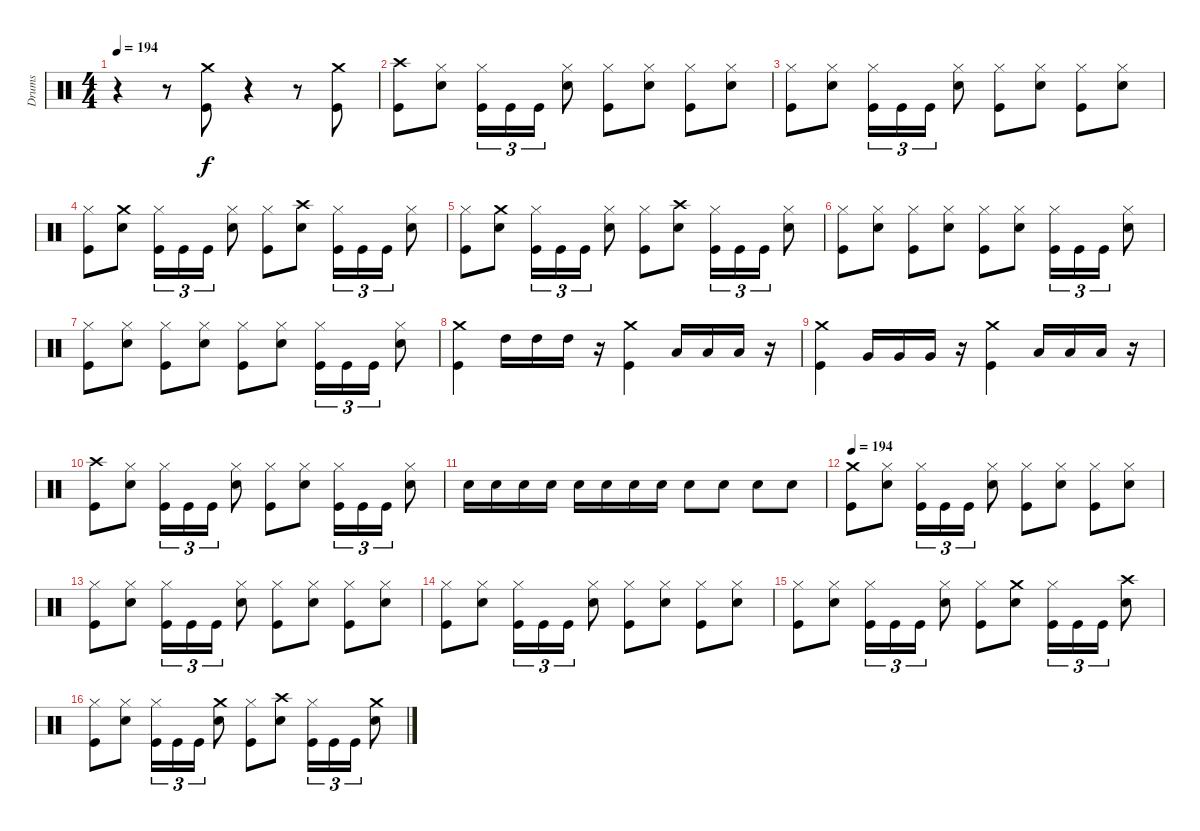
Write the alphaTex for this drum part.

\track ("Drums" "Drums") {instrument percussion}
\staff {score}
\articulation defaults
\ts (4 4)
\tempo 194
\clef neutral
\ks c
r.4{dy f} r.8 ("Crash medium (hit)" "Kick (hit)").8 r.4 r.8 ("Crash medium (hit)" "Kick (hit)").8 |
("Crash high (hit)" "Kick (hit)").8 ("Hi-Hat (closed)" "Snare (hit) 2").8 ("Hi-Hat (closed)" "Kick (hit)").16{tu (3 2)} "Kick (hit)".16{tu (3 2)} "Kick (hit)".16{tu (3 2)} ("Hi-Hat (closed)" "Snare (hit) 2").8 ("Hi-Hat (closed)" "Kick (hit)").8 ("Hi-Hat (closed)" "Snare (hit) 2").8 ("Hi-Hat (closed)" "Kick (hit)").8 ("Hi-Hat (closed)" "Snare (hit) 2").8 |
("Hi-Hat (closed)" "Kick (hit)").8 ("Hi-Hat (closed)" "Snare (hit) 2").8 ("Hi-Hat (closed)" "Kick (hit)").16{tu (3 2)} "Kick (hit)".16{tu (3 2)} "Kick (hit)".16{tu (3 2)} ("Hi-Hat (closed)" "Snare (hit) 2").8 ("Hi-Hat (closed)" "Kick (hit)").8 ("Hi-Hat (closed)" "Snare (hit) 2").8 ("Hi-Hat (closed)" "Kick (hit)").8 ("Hi-Hat (closed)" "Snare (hit) 2").8 |
("Hi-Hat (closed)" "Kick (hit)").8 ("Crash medium (hit)" "Snare (hit) 2").8 ("Hi-Hat (closed)" "Kick (hit)").16{tu (3 2)} "Kick (hit)".16{tu (3 2)} "Kick (hit)".16{tu (3 2)} ("Hi-Hat (closed)" "Snare (hit) 2").8 ("Hi-Hat (closed)" "Kick (hit)").8 ("Crash high (hit)" "Snare (hit) 2").8 ("Hi-Hat (closed)" "Kick (hit)").16{tu (3 2)} "Kick (hit)".16{tu (3 2)} "Kick (hit)".16{tu (3 2)} ("Hi-Hat (closed)" "Snare (hit) 2").8 |
("Hi-Hat (closed)" "Kick (hit)").8 ("Crash medium (hit)" "Snare (hit) 2").8 ("Hi-Hat (closed)" "Kick (hit)").16{tu (3 2)} "Kick (hit)".16{tu (3 2)} "Kick (hit)".16{tu (3 2)} ("Hi-Hat (closed)" "Snare (hit) 2").8 ("Hi-Hat (closed)" "Kick (hit)").8 ("Crash high (hit)" "Snare (hit) 2").8 ("Hi-Hat (closed)" "Kick (hit)").16{tu (3 2)} "Kick (hit)".16{tu (3 2)} "Kick (hit)".16{tu (3 2)} ("Hi-Hat (closed)" "Snare (hit) 2").8 |
("Hi-Hat (closed)" "Kick (hit)").8 ("Hi-Hat (closed)" "Snare (hit) 2").8 ("Hi-Hat (closed)" "Kick (hit)").8 ("Hi-Hat (closed)" "Snare (hit) 2").8 ("Hi-Hat (closed)" "Kick (hit)").8 ("Hi-Hat (closed)" "Snare (hit) 2").8 ("Hi-Hat (closed)" "Kick (hit)").16{tu (3 2)} "Kick (hit)".16{tu (3 2)} "Kick (hit)".16{tu (3 2)} ("Hi-Hat (closed)" "Snare (hit) 2").8 |
("Hi-Hat (closed)" "Kick (hit)").8 ("Hi-Hat (closed)" "Snare (hit) 2").8 ("Hi-Hat (closed)" "Kick (hit)").8 ("Hi-Hat (closed)" "Snare (hit) 2").8 ("Hi-Hat (closed)" "Kick (hit)").8 ("Hi-Hat (closed)" "Snare (hit) 2").8 ("Hi-Hat (closed)" "Kick (hit)").16{tu (3 2)} "Kick (hit)".16{tu (3 2)} "Kick (hit)".16{tu (3 2)} ("Hi-Hat (closed)" "Snare (hit) 2").8 |
("Crash medium (hit)" "Kick (hit)").4 "High Tom (hit)".16 "High Tom (hit)".16 "High Tom (hit)".16 r.16 ("Crash medium (hit)" "Kick (hit)").4 "Low Tom (hit)".16 "Low Tom (hit)".16 "Low Tom (hit)".16 r.16 |
("Crash medium (hit)" "Kick (hit)").4 "Very Low Tom (hit)".16 "Very Low Tom (hit)".16 "Very Low Tom (hit)".16 r.16 ("Crash medium (hit)" "Kick (hit)").4 "Low Floor Tom (hit)".16 "Low Floor Tom (hit)".16 "Low Floor Tom (hit)".16 r.16 |
("Crash high (hit)" "Kick (hit)").8 ("Hi-Hat (closed)" "Snare (hit) 2").8 ("Hi-Hat (closed)" "Kick (hit)").16{tu (3 2)} "Kick (hit)".16{tu (3 2)} "Kick (hit)".16{tu (3 2)} ("Hi-Hat (closed)" "Snare (hit) 2").8 ("Hi-Hat (closed)" "Kick (hit)").8 ("Hi-Hat (closed)" "Snare (hit) 2").8 ("Hi-Hat (closed)" "Kick (hit)").16{tu (3 2)} "Kick (hit)".16{tu (3 2)} "Kick (hit)".16{tu (3 2)} ("Hi-Hat (closed)" "Snare (hit) 2").8 |
"Snare (hit) 2".16 "Snare (hit) 2".16 "Snare (hit) 2".16 "Snare (hit) 2".16 "Snare (hit) 2".16 "Snare (hit) 2".16 "Snare (hit) 2".16 "Snare (hit) 2".16 "Snare (hit) 2".8 "Snare (hit) 2".8 "Snare (hit) 2".8 "Snare (hit) 2".8 |
\tempo 194
("Crash medium (hit)" "Kick (hit)").8 ("Hi-Hat (closed)" "Snare (hit) 2").8 ("Hi-Hat (closed)" "Kick (hit)").16{tu (3 2)} "Kick (hit)".16{tu (3 2)} "Kick (hit)".16{tu (3 2)} ("Hi-Hat (closed)" "Snare (hit) 2").8 ("Hi-Hat (closed)" "Kick (hit)").8 ("Hi-Hat (closed)" "Snare (hit) 2").8 ("Hi-Hat (closed)" "Kick (hit)").8 ("Hi-Hat (closed)" "Snare (hit) 2").8 |
("Hi-Hat (closed)" "Kick (hit)").8 ("Hi-Hat (closed)" "Snare (hit) 2").8 ("Hi-Hat (closed)" "Kick (hit)").16{tu (3 2)} "Kick (hit)".16{tu (3 2)} "Kick (hit)".16{tu (3 2)} ("Hi-Hat (closed)" "Snare (hit) 2").8 ("Hi-Hat (closed)" "Kick (hit)").8 ("Hi-Hat (closed)" "Snare (hit) 2").8 ("Hi-Hat (closed)" "Kick (hit)").8 ("Hi-Hat (closed)" "Snare (hit) 2").8 |
("Hi-Hat (closed)" "Kick (hit)").8 ("Hi-Hat (closed)" "Snare (hit) 2").8 ("Hi-Hat (closed)" "Kick (hit)").16{tu (3 2)} "Kick (hit)".16{tu (3 2)} "Kick (hit)".16{tu (3 2)} ("Hi-Hat (closed)" "Snare (hit) 2").8 ("Hi-Hat (closed)" "Kick (hit)").8 ("Hi-Hat (closed)" "Snare (hit) 2").8 ("Hi-Hat (closed)" "Kick (hit)").8 ("Hi-Hat (closed)" "Snare (hit) 2").8 |
("Hi-Hat (closed)" "Kick (hit)").8 ("Hi-Hat (closed)" "Snare (hit) 2").8 ("Hi-Hat (closed)" "Kick (hit)").16{tu (3 2)} "Kick (hit)".16{tu (3 2)} "Kick (hit)".16{tu (3 2)} ("Hi-Hat (closed)" "Snare (hit) 2").8 ("Hi-Hat (closed)" "Kick (hit)").8 ("Crash medium (hit)" "Snare (hit) 2").8 ("Hi-Hat (closed)" "Kick (hit)").16{tu (3 2)} "Kick (hit)".16{tu (3 2)} "Kick (hit)".16{tu (3 2)} ("Crash high (hit)" "Snare (hit) 2").8 |
("Hi-Hat (closed)" "Kick (hit)").8 ("Hi-Hat (closed)" "Snare (hit) 2").8 ("Hi-Hat (closed)" "Kick (hit)").16{tu (3 2)} "Kick (hit)".16{tu (3 2)} "Kick (hit)".16{tu (3 2)} ("Crash medium (hit)" "Snare (hit) 2").8 ("Hi-Hat (closed)" "Kick (hit)").8 ("Crash high (hit)" "Snare (hit) 2").8 ("Hi-Hat (closed)" "Kick (hit)").16{tu (3 2)} "Kick (hit)".16{tu (3 2)} "Kick (hit)".16{tu (3 2)} ("Crash medium (hit)" "Snare (hit) 2").8
